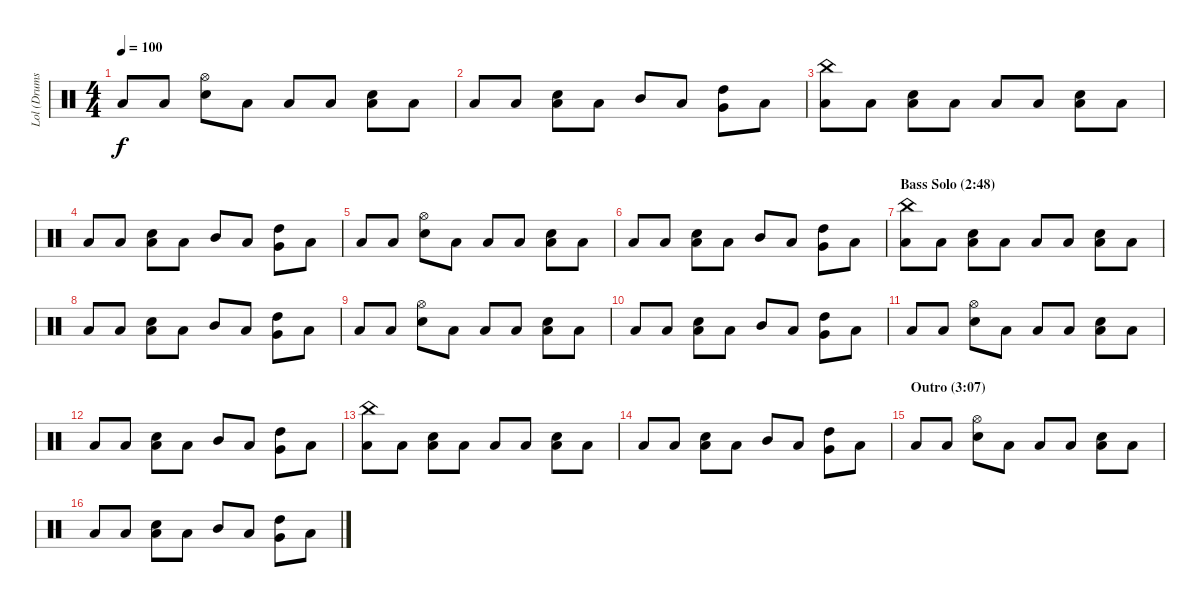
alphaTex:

\track ("Lol (Drums)" "Lol (Drums") {instrument percussion}
\staff {score}
\articulation defaults
\ts (4 4)
\tempo 100
\clef neutral
\ks c "Low Tom (hit)".8{dy f} "Low Tom (hit)".8
("Hi-Hat (open)" "Snare (hit) 2").8 "Low Tom (hit)".8 "Low Tom (hit)".8 "Low Tom (hit)".8 ("Low Tom (hit)" "Snare (hit) 2").8 "Low Tom (hit)".8 |
"Low Tom (hit)".8 "Low Tom (hit)".8 ("Low Tom (hit)" "Snare (hit) 2").8 "Low Tom (hit)".8 "Mid Tom (hit)".8 "Low Tom (hit)".8 ("High Tom (hit)" "Very Low Tom (hit)").8 "Low Floor Tom (hit)".8 |
("China (hit)" "Low Tom (hit)").8 "Low Tom (hit)".8 ("Low Tom (hit)" "Snare (hit) 2").8 "Low Tom (hit)".8 "Low Tom (hit)".8 "Low Tom (hit)".8 ("Low Tom (hit)" "Snare (hit) 2").8 "Low Tom (hit)".8 |
"Low Tom (hit)".8 "Low Tom (hit)".8 ("Low Tom (hit)" "Snare (hit) 2").8 "Low Tom (hit)".8 "Mid Tom (hit)".8 "Low Tom (hit)".8 ("High Tom (hit)" "Very Low Tom (hit)").8 "Low Floor Tom (hit)".8 |
"Low Tom (hit)".8 "Low Tom (hit)".8 ("Hi-Hat (open)" "Snare (hit) 2").8 "Low Tom (hit)".8 "Low Tom (hit)".8 "Low Tom (hit)".8 ("Low Tom (hit)" "Snare (hit) 2").8 "Low Tom (hit)".8 |
"Low Tom (hit)".8 "Low Tom (hit)".8 ("Low Tom (hit)" "Snare (hit) 2").8 "Low Tom (hit)".8 "Mid Tom (hit)".8 "Low Tom (hit)".8 ("High Tom (hit)" "Very Low Tom (hit)").8 "Low Floor Tom (hit)".8 |
\section ("" "Bass Solo (2:48)")
("China (hit)" "Low Tom (hit)").8 "Low Tom (hit)".8 ("Low Tom (hit)" "Snare (hit) 2").8 "Low Tom (hit)".8 "Low Tom (hit)".8 "Low Tom (hit)".8 ("Low Tom (hit)" "Snare (hit) 2").8 "Low Tom (hit)".8 |
"Low Tom (hit)".8 "Low Tom (hit)".8 ("Low Tom (hit)" "Snare (hit) 2").8 "Low Tom (hit)".8 "Mid Tom (hit)".8 "Low Tom (hit)".8 ("High Tom (hit)" "Very Low Tom (hit)").8 "Low Floor Tom (hit)".8 |
"Low Tom (hit)".8 "Low Tom (hit)".8 ("Hi-Hat (open)" "Snare (hit) 2").8 "Low Tom (hit)".8 "Low Tom (hit)".8 "Low Tom (hit)".8 ("Low Tom (hit)" "Snare (hit) 2").8 "Low Tom (hit)".8 |
"Low Tom (hit)".8 "Low Tom (hit)".8 ("Low Tom (hit)" "Snare (hit) 2").8 "Low Tom (hit)".8 "Mid Tom (hit)".8 "Low Tom (hit)".8 ("High Tom (hit)" "Very Low Tom (hit)").8 "Low Floor Tom (hit)".8 |
"Low Tom (hit)".8 "Low Tom (hit)".8 ("Hi-Hat (open)" "Snare (hit) 2").8 "Low Tom (hit)".8 "Low Tom (hit)".8 "Low Tom (hit)".8 ("Low Tom (hit)" "Snare (hit) 2").8 "Low Tom (hit)".8 |
"Low Tom (hit)".8 "Low Tom (hit)".8 ("Low Tom (hit)" "Snare (hit) 2").8 "Low Tom (hit)".8 "Mid Tom (hit)".8 "Low Tom (hit)".8 ("High Tom (hit)" "Very Low Tom (hit)").8 "Low Floor Tom (hit)".8 |
("China (hit)" "Low Tom (hit)").8 "Low Tom (hit)".8 ("Low Tom (hit)" "Snare (hit) 2").8 "Low Tom (hit)".8 "Low Tom (hit)".8 "Low Tom (hit)".8 ("Low Tom (hit)" "Snare (hit) 2").8 "Low Tom (hit)".8 |
"Low Tom (hit)".8 "Low Tom (hit)".8 ("Low Tom (hit)" "Snare (hit) 2").8 "Low Tom (hit)".8 "Mid Tom (hit)".8 "Low Tom (hit)".8 ("High Tom (hit)" "Very Low Tom (hit)").8 "Low Floor Tom (hit)".8 |
\section ("" "Outro (3:07)")
"Low Tom (hit)".8 "Low Tom (hit)".8 ("Hi-Hat (open)" "Snare (hit) 2").8 "Low Tom (hit)".8 "Low Tom (hit)".8 "Low Tom (hit)".8 ("Low Tom (hit)" "Snare (hit) 2").8 "Low Tom (hit)".8 |
"Low Tom (hit)".8 "Low Tom (hit)".8 ("Low Tom (hit)" "Snare (hit) 2").8 "Low Tom (hit)".8 "Mid Tom (hit)".8 "Low Tom (hit)".8 ("High Tom (hit)" "Very Low Tom (hit)").8 "Low Floor Tom (hit)".8
